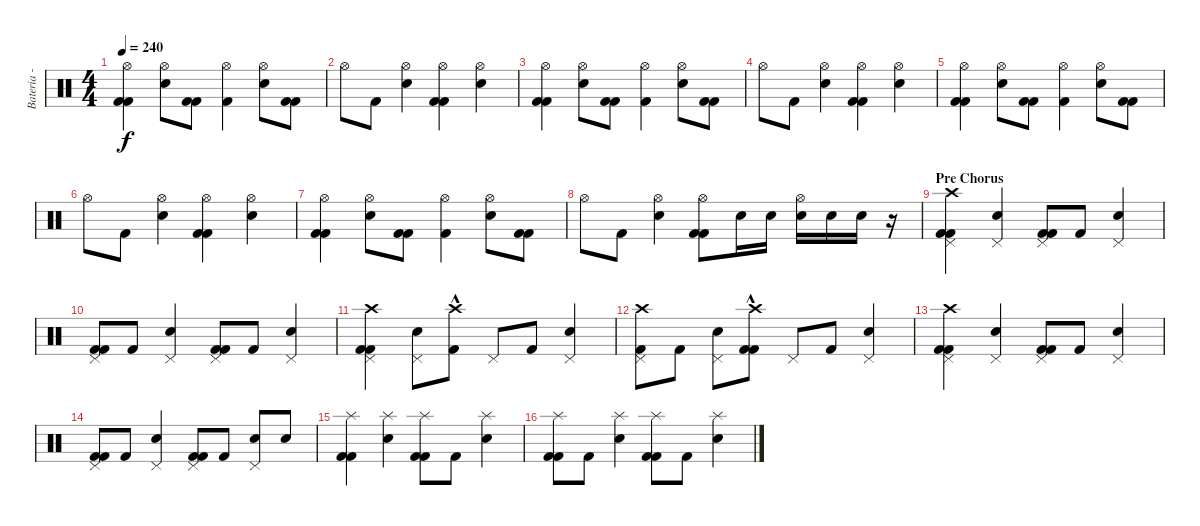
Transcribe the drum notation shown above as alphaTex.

\track ("Bateria - Larzon" "Bateria - ") {instrument percussion}
\staff {score}
\articulation defaults
\ts (4 4)
\tempo 240
\clef neutral
\ks c
("Kick (hit) 2" "Hi-Hat (open)" "Kick (hit) 2").4{dy f} ("Hi-Hat (open)" "Snare (hit) 2").8 ("Kick (hit) 2" "Kick (hit) 2").8 ("Kick (hit) 2" "Hi-Hat (open)").4 ("Hi-Hat (open)" "Snare (hit) 2").8 ("Kick (hit) 2" "Kick (hit) 2").8 |
"Hi-Hat (open)".8 "Kick (hit) 2".8 ("Hi-Hat (open)" "Snare (hit) 2").4 ("Kick (hit) 2" "Hi-Hat (open)" "Kick (hit) 2").4 ("Hi-Hat (open)" "Snare (hit) 2").4 |
("Kick (hit) 2" "Hi-Hat (open)" "Kick (hit) 2").4 ("Hi-Hat (open)" "Snare (hit) 2").8 ("Kick (hit) 2" "Kick (hit) 2").8 ("Kick (hit) 2" "Hi-Hat (open)").4 ("Hi-Hat (open)" "Snare (hit) 2").8 ("Kick (hit) 2" "Kick (hit) 2").8 |
"Hi-Hat (open)".8 "Kick (hit) 2".8 ("Hi-Hat (open)" "Snare (hit) 2").4 ("Kick (hit) 2" "Hi-Hat (open)" "Kick (hit) 2").4 ("Hi-Hat (open)" "Snare (hit) 2").4 |
("Kick (hit) 2" "Hi-Hat (open)" "Kick (hit) 2").4 ("Hi-Hat (open)" "Snare (hit) 2").8 ("Kick (hit) 2" "Kick (hit) 2").8 ("Kick (hit) 2" "Hi-Hat (open)").4 ("Hi-Hat (open)" "Snare (hit) 2").8 ("Kick (hit) 2" "Kick (hit) 2").8 |
"Hi-Hat (open)".8 "Kick (hit) 2".8 ("Hi-Hat (open)" "Snare (hit) 2").4 ("Kick (hit) 2" "Hi-Hat (open)" "Kick (hit) 2").4 ("Hi-Hat (open)" "Snare (hit) 2").4 |
("Kick (hit) 2" "Hi-Hat (open)" "Kick (hit) 2").4 ("Hi-Hat (open)" "Snare (hit) 2").8 ("Kick (hit) 2" "Kick (hit) 2").8 ("Kick (hit) 2" "Hi-Hat (open)").4 ("Hi-Hat (open)" "Snare (hit) 2").8 ("Kick (hit) 2" "Kick (hit) 2").8 |
"Hi-Hat (open)".8 "Kick (hit) 2".8 ("Hi-Hat (open)" "Snare (hit) 2").4 ("Kick (hit) 2" "Hi-Hat (open)" "Kick (hit) 2").8{volume 12} "Snare (hit) 2".16 "Snare (hit) 2".16{volume 16} ("Hi-Hat (open)" "Snare (hit) 2").16{volume 12} "Snare (hit) 2".16 "Snare (hit) 2".16{volume 16} r.16 |
\section ("" "Pre Chorus")
("Pedal Hi-Hat (hit)" "Crash high (hit)" "Kick (hit) 2" "Kick (hit) 2").4 ("Pedal Hi-Hat (hit)" "Snare (hit) 2").4 ("Pedal Hi-Hat (hit)" "Kick (hit) 2" "Kick (hit) 2").8{volume 12} "Kick (hit) 2".8 ("Pedal Hi-Hat (hit)" "Snare (hit) 2").4{volume 12} |
("Pedal Hi-Hat (hit)" "Kick (hit) 2" "Kick (hit) 2").8{volume 16} "Kick (hit) 2".8 ("Pedal Hi-Hat (hit)" "Snare (hit) 2").4 ("Pedal Hi-Hat (hit)" "Kick (hit) 2" "Kick (hit) 2").8{volume 12} "Kick (hit) 2".8 ("Pedal Hi-Hat (hit)" "Snare (hit) 2").4{volume 12} |
("Crash high (hit)" "Pedal Hi-Hat (hit)" "Kick (hit) 2" "Kick (hit) 2").4{volume 16} ("Pedal Hi-Hat (hit)" "Snare (hit) 2").8 ("Crash high (hit)"{hac} "Kick (hit) 2").8 "Pedal Hi-Hat (hit)".8{volume 12} "Kick (hit) 2".8 ("Snare (hit) 2" "Pedal Hi-Hat (hit)").4{volume 12} |
("Crash high (hit)" "Kick (hit) 2" "Pedal Hi-Hat (hit)").8{volume 16} "Kick (hit) 2".8 ("Pedal Hi-Hat (hit)" "Snare (hit) 2").8 ("Crash high (hit)"{hac} "Kick (hit) 2" "Kick (hit) 2").8 "Pedal Hi-Hat (hit)".8{volume 12} "Kick (hit) 2".8 ("Snare (hit) 2" "Pedal Hi-Hat (hit)").4{volume 12} |
("Kick (hit) 2" "Pedal Hi-Hat (hit)" "Crash high (hit)" "Kick (hit) 2").4{volume 16} ("Snare (hit) 2" "Pedal Hi-Hat (hit)").4 ("Pedal Hi-Hat (hit)" "Kick (hit) 2" "Kick (hit) 2").8{volume 12} "Kick (hit) 2".8 ("Snare (hit) 2" "Pedal Hi-Hat (hit)").4{volume 12} |
("Kick (hit) 2" "Pedal Hi-Hat (hit)" "Kick (hit) 2").8{volume 16} "Kick (hit) 2".8 ("Snare (hit) 2" "Pedal Hi-Hat (hit)").4 ("Kick (hit) 2" "Pedal Hi-Hat (hit)" "Kick (hit) 2").8{volume 12} "Kick (hit) 2".8 ("Pedal Hi-Hat (hit)" "Snare (hit) 2").8{volume 12} "Snare (hit) 2".8{volume 16} |
("Kick (hit) 2" "Kick (hit) 2" "Splash (hit)").4 ("Snare (hit) 2" "Splash (hit)").4 ("Kick (hit) 2" "Splash (hit)" "Kick (hit) 2").8{volume 12} "Kick (hit) 2".8 ("Snare (hit) 2" "Splash (hit)").4{volume 12} |
("Kick (hit) 2" "Kick (hit) 2" "Splash (hit)").8{volume 16} "Kick (hit) 2".8 ("Snare (hit) 2" "Splash (hit)").4 ("Kick (hit) 2" "Kick (hit) 2" "Splash (hit)").8{volume 12} "Kick (hit) 2".8 ("Snare (hit) 2" "Splash (hit)").4{volume 12}
